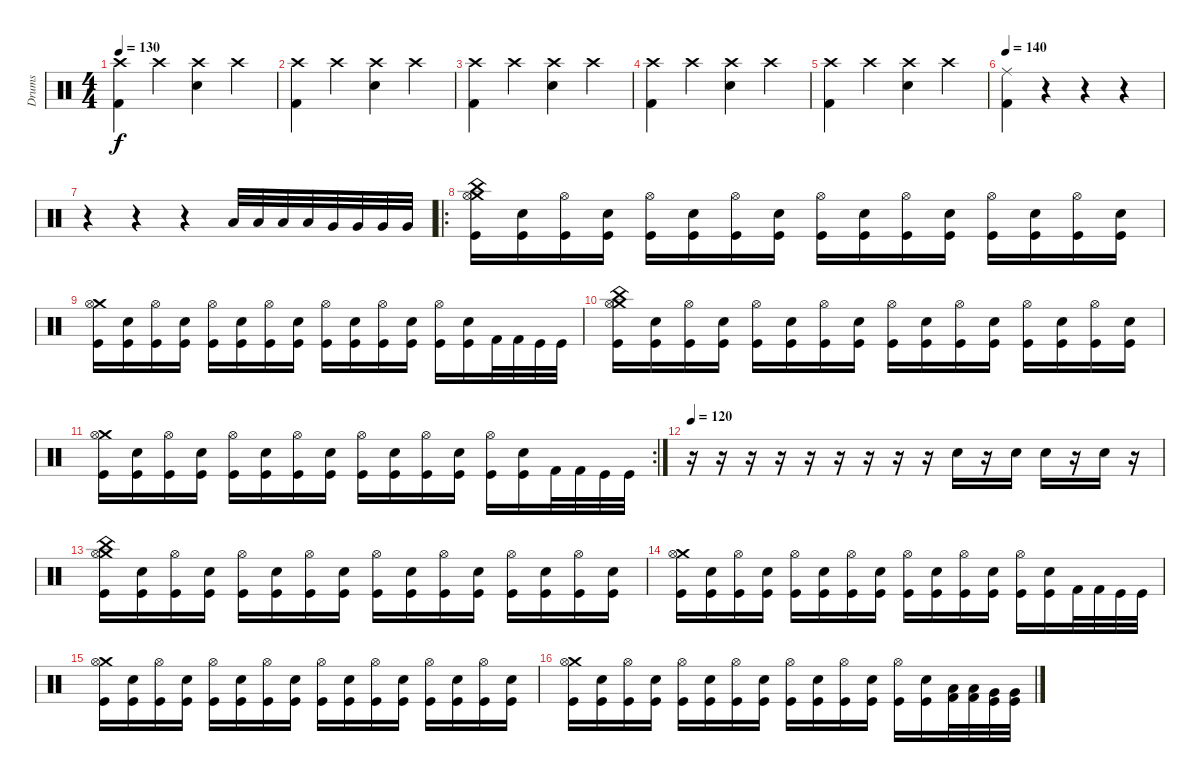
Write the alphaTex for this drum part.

\track ("Drums" "Drums") {instrument percussion}
\staff {score}
\articulation defaults
\ts (4 4)
\tempo 130
\clef neutral
\ks c
("Crash high (hit)" "Kick (hit) 2").4{dy f} "Crash high (hit)".4 ("Crash high (hit)" "Electric Snare (hit)").4 "Crash high (hit)".4 |
("Crash high (hit)" "Kick (hit) 2").4 "Crash high (hit)".4 ("Crash high (hit)" "Electric Snare (hit)").4 "Crash high (hit)".4 |
("Crash high (hit)" "Kick (hit) 2").4 "Crash high (hit)".4 ("Crash high (hit)" "Electric Snare (hit)").4 "Crash high (hit)".4 |
("Crash high (hit)" "Kick (hit) 2").4 "Crash high (hit)".4 ("Crash high (hit)" "Electric Snare (hit)").4 "Crash high (hit)".4 |
("Crash high (hit)" "Kick (hit) 2").4 "Crash high (hit)".4 ("Crash high (hit)" "Electric Snare (hit)").4 "Crash high (hit)".4 |
\tempo 140
("Ride (middle)" "Kick (hit) 2").4 r.4 r.4 r.4 |
r.4 r.4 r.4 "Low Tom (hit)".32 "Low Tom (hit)".32 "Low Tom (hit)".32 "Low Tom (hit)".32 "Very Low Tom (hit)".32 "Very Low Tom (hit)".32 "Very Low Tom (hit)".32 "Very Low Tom (hit)".32 |
\ro
("China (hit)" "Crash medium (hit)" "Hi-Hat (open)" "Kick (hit)").16 ("Electric Snare (hit)" "Kick (hit)").16 ("Hi-Hat (open)" "Kick (hit)").16 ("Electric Snare (hit)" "Kick (hit)").16 ("Hi-Hat (open)" "Kick (hit)").16 ("Electric Snare (hit)" "Kick (hit)").16 ("Hi-Hat (open)" "Kick (hit)").16 ("Electric Snare (hit)" "Kick (hit)").16 ("Hi-Hat (open)" "Kick (hit)").16 ("Electric Snare (hit)" "Kick (hit)").16 ("Hi-Hat (open)" "Kick (hit)").16 ("Electric Snare (hit)" "Kick (hit)").16 ("Hi-Hat (open)" "Kick (hit)").16 ("Electric Snare (hit)" "Kick (hit)").16 ("Hi-Hat (open)" "Kick (hit)").16 ("Electric Snare (hit)" "Kick (hit)").16 |
("Crash medium (hit)" "Hi-Hat (open)" "Kick (hit)").16 ("Electric Snare (hit)" "Kick (hit)").16 ("Hi-Hat (open)" "Kick (hit)").16 ("Electric Snare (hit)" "Kick (hit)").16 ("Hi-Hat (open)" "Kick (hit)").16 ("Electric Snare (hit)" "Kick (hit)").16 ("Hi-Hat (open)" "Kick (hit)").16 ("Electric Snare (hit)" "Kick (hit)").16 ("Hi-Hat (open)" "Kick (hit)").16 ("Electric Snare (hit)" "Kick (hit)").16 ("Hi-Hat (open)" "Kick (hit)").16 ("Electric Snare (hit)" "Kick (hit)").16 ("Hi-Hat (open)" "Kick (hit)").16 ("Electric Snare (hit)" "Kick (hit)").16 "Kick (hit) 2".32 "Kick (hit) 2".32 "Kick (hit)".32 "Kick (hit)".32 |
("China (hit)" "Crash medium (hit)" "Hi-Hat (open)" "Kick (hit)").16 ("Electric Snare (hit)" "Kick (hit)").16 ("Hi-Hat (open)" "Kick (hit)").16 ("Electric Snare (hit)" "Kick (hit)").16 ("Hi-Hat (open)" "Kick (hit)").16 ("Electric Snare (hit)" "Kick (hit)").16 ("Hi-Hat (open)" "Kick (hit)").16 ("Electric Snare (hit)" "Kick (hit)").16 ("Hi-Hat (open)" "Kick (hit)").16 ("Electric Snare (hit)" "Kick (hit)").16 ("Hi-Hat (open)" "Kick (hit)").16 ("Electric Snare (hit)" "Kick (hit)").16 ("Hi-Hat (open)" "Kick (hit)").16 ("Electric Snare (hit)" "Kick (hit)").16 ("Hi-Hat (open)" "Kick (hit)").16 ("Electric Snare (hit)" "Kick (hit)").16 |
\rc 2
("Crash medium (hit)" "Hi-Hat (open)" "Kick (hit)").16 ("Electric Snare (hit)" "Kick (hit)").16 ("Hi-Hat (open)" "Kick (hit)").16 ("Electric Snare (hit)" "Kick (hit)").16 ("Hi-Hat (open)" "Kick (hit)").16 ("Electric Snare (hit)" "Kick (hit)").16 ("Hi-Hat (open)" "Kick (hit)").16 ("Electric Snare (hit)" "Kick (hit)").16 ("Hi-Hat (open)" "Kick (hit)").16 ("Electric Snare (hit)" "Kick (hit)").16 ("Hi-Hat (open)" "Kick (hit)").16 ("Electric Snare (hit)" "Kick (hit)").16 ("Hi-Hat (open)" "Kick (hit)").16 ("Electric Snare (hit)" "Kick (hit)").16 "Kick (hit) 2".32 "Kick (hit) 2".32 "Kick (hit)".32 "Kick (hit)".32 |
\tempo 120
r.16 r.16 r.16 r.16 r.16 r.16 r.16 r.16 r.16 "Electric Snare (hit)".16 r.16 "Electric Snare (hit)".16 "Electric Snare (hit)".16 r.16 "Electric Snare (hit)".16 r.16 |
("China (hit)" "Crash medium (hit)" "Hi-Hat (open)" "Kick (hit)").16 ("Electric Snare (hit)" "Kick (hit)").16 ("Hi-Hat (open)" "Kick (hit)").16 ("Electric Snare (hit)" "Kick (hit)").16 ("Hi-Hat (open)" "Kick (hit)").16 ("Electric Snare (hit)" "Kick (hit)").16 ("Hi-Hat (open)" "Kick (hit)").16 ("Electric Snare (hit)" "Kick (hit)").16 ("Hi-Hat (open)" "Kick (hit)").16 ("Electric Snare (hit)" "Kick (hit)").16 ("Hi-Hat (open)" "Kick (hit)").16 ("Electric Snare (hit)" "Kick (hit)").16 ("Hi-Hat (open)" "Kick (hit)").16 ("Electric Snare (hit)" "Kick (hit)").16 ("Hi-Hat (open)" "Kick (hit)").16 ("Electric Snare (hit)" "Kick (hit)").16 |
("Crash medium (hit)" "Hi-Hat (open)" "Kick (hit)").16 ("Electric Snare (hit)" "Kick (hit)").16 ("Hi-Hat (open)" "Kick (hit)").16 ("Electric Snare (hit)" "Kick (hit)").16 ("Hi-Hat (open)" "Kick (hit)").16 ("Electric Snare (hit)" "Kick (hit)").16 ("Hi-Hat (open)" "Kick (hit)").16 ("Electric Snare (hit)" "Kick (hit)").16 ("Hi-Hat (open)" "Kick (hit)").16 ("Electric Snare (hit)" "Kick (hit)").16 ("Hi-Hat (open)" "Kick (hit)").16 ("Electric Snare (hit)" "Kick (hit)").16 ("Hi-Hat (open)" "Kick (hit)").16 ("Electric Snare (hit)" "Kick (hit)").16 "Kick (hit) 2".32 "Kick (hit) 2".32 "Kick (hit)".32 "Kick (hit)".32 |
("Crash medium (hit)" "Hi-Hat (open)" "Kick (hit)").16 ("Electric Snare (hit)" "Kick (hit)").16 ("Hi-Hat (open)" "Kick (hit)").16 ("Electric Snare (hit)" "Kick (hit)").16 ("Hi-Hat (open)" "Kick (hit)").16 ("Electric Snare (hit)" "Kick (hit)").16 ("Hi-Hat (open)" "Kick (hit)").16 ("Electric Snare (hit)" "Kick (hit)").16 ("Hi-Hat (open)" "Kick (hit)").16 ("Electric Snare (hit)" "Kick (hit)").16 ("Hi-Hat (open)" "Kick (hit)").16 ("Electric Snare (hit)" "Kick (hit)").16 ("Hi-Hat (open)" "Kick (hit)").16 ("Electric Snare (hit)" "Kick (hit)").16 ("Hi-Hat (open)" "Kick (hit)").16 ("Electric Snare (hit)" "Kick (hit)").16 |
("Crash medium (hit)" "Hi-Hat (open)" "Kick (hit)").16 ("Electric Snare (hit)" "Kick (hit)").16 ("Hi-Hat (open)" "Kick (hit)").16 ("Electric Snare (hit)" "Kick (hit)").16 ("Hi-Hat (open)" "Kick (hit)").16 ("Electric Snare (hit)" "Kick (hit)").16 ("Hi-Hat (open)" "Kick (hit)").16 ("Electric Snare (hit)" "Kick (hit)").16 ("Hi-Hat (open)" "Kick (hit)").16 ("Electric Snare (hit)" "Kick (hit)").16 ("Hi-Hat (open)" "Kick (hit)").16 ("Electric Snare (hit)" "Kick (hit)").16 ("Hi-Hat (open)" "Kick (hit)").16 ("Electric Snare (hit)" "Kick (hit)").16 ("Low Tom (hit)" "Kick (hit) 2").32 ("Low Tom (hit)" "Kick (hit) 2").32 ("Very Low Tom (hit)" "Kick (hit)").32 ("Very Low Tom (hit)" "Kick (hit)").32
